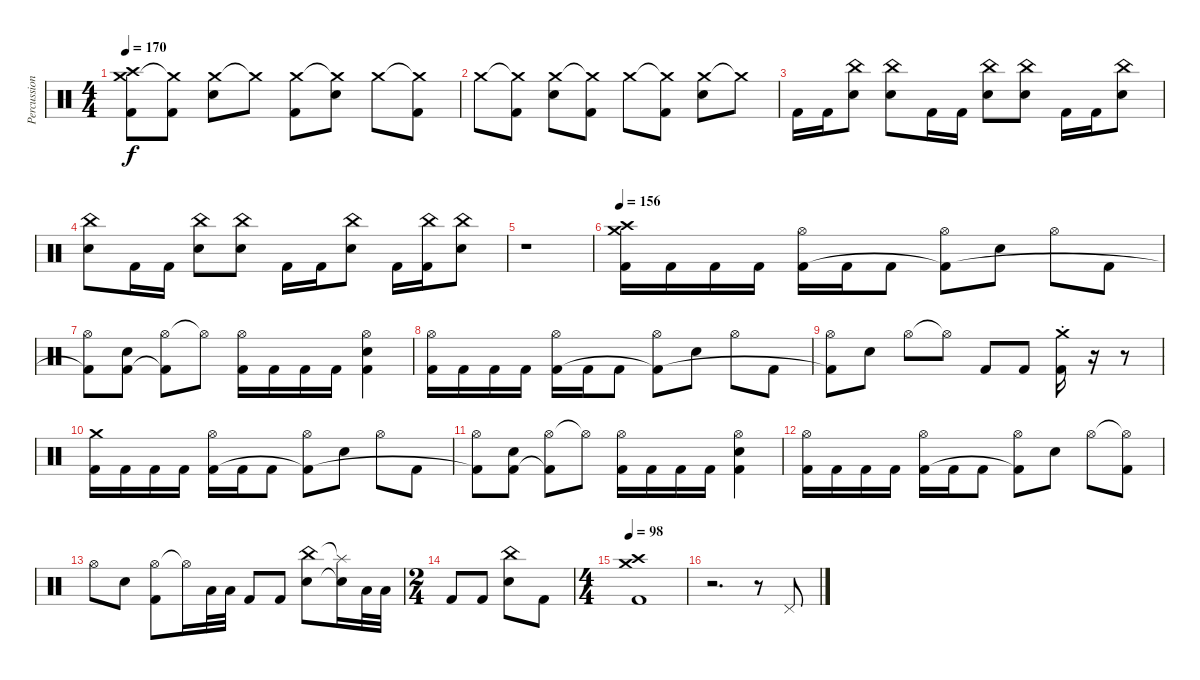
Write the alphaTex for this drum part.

\track ("Percussion" "Percussion") {instrument percussion}
\staff {score}
\articulation defaults
\ts (4 4)
\tempo 170
\clef neutral
\ks c
("Crash medium (hit)" "Crash high (hit)" "Kick (hit) 2").8{dy f} ("Crash medium (hit)"{t} "Kick (hit) 2").8 ("Crash medium (hit)" "Electric Snare (hit)").8 "Crash medium (hit)"{t}.8 ("Crash medium (hit)" "Kick (hit) 2").8 ("Crash medium (hit)"{t} "Electric Snare (hit)").8 "Crash medium (hit)".8 ("Crash medium (hit)"{t} "Kick (hit) 2").8 |
"Crash medium (hit)".8 ("Crash medium (hit)"{t} "Kick (hit) 2").8 ("Crash medium (hit)" "Electric Snare (hit)").8 ("Crash medium (hit)"{t} "Kick (hit) 2").8 "Crash medium (hit)".8 ("Crash medium (hit)"{t} "Kick (hit) 2").8 ("Crash medium (hit)" "Electric Snare (hit)").8 "Crash medium (hit)"{t}.8 |
"Kick (hit) 2".16 "Kick (hit) 2".16 ("China (hit)" "Electric Snare (hit)").8 ("China (hit)" "Electric Snare (hit)").8 "Kick (hit) 2".16 "Kick (hit) 2".16 ("China (hit)" "Electric Snare (hit)").8 ("China (hit)" "Electric Snare (hit)").8 "Kick (hit) 2".16 "Kick (hit) 2".16 ("China (hit)" "Electric Snare (hit)").8 |
("China (hit)" "Electric Snare (hit)").8 "Kick (hit) 2".16 "Kick (hit) 2".16 ("China (hit)" "Electric Snare (hit)").8 ("China (hit)" "Electric Snare (hit)").8 "Kick (hit) 2".16 "Kick (hit) 2".16 ("China (hit)" "Electric Snare (hit)").8 "Kick (hit) 2".16 ("China (hit)" "Kick (hit) 2").16 ("China (hit)" "Electric Snare (hit)").8 |
r.1 |
\tempo 156
("Crash medium (hit)" "Crash high (hit)" "Kick (hit) 2").16 "Kick (hit) 2".16 "Kick (hit) 2".16 "Kick (hit) 2".16 ("Hi-Hat (open)" "Kick (hit) 2").16 "Kick (hit) 2".16 "Kick (hit) 2".8 ("Hi-Hat (open)" "Kick (hit) 2"{t}).8 "Electric Snare (hit)".8 "Hi-Hat (open)".8 "Kick (hit) 2".8 |
("Hi-Hat (open)" "Kick (hit) 2"{t}).8 ("Electric Snare (hit)" "Kick (hit) 2").8 ("Hi-Hat (open)" "Kick (hit) 2"{t}).8 "Hi-Hat (open)"{t}.8 ("Hi-Hat (open)" "Kick (hit) 2").16 "Kick (hit) 2".16 "Kick (hit) 2".16 "Kick (hit) 2".16 ("Hi-Hat (open)" "Electric Snare (hit)" "Kick (hit) 2").4 |
("Hi-Hat (open)" "Kick (hit) 2").16 "Kick (hit) 2".16 "Kick (hit) 2".16 "Kick (hit) 2".16 ("Hi-Hat (open)" "Kick (hit) 2").16 "Kick (hit) 2".16 "Kick (hit) 2".8 ("Hi-Hat (open)" "Kick (hit) 2"{t}).8 "Electric Snare (hit)".8 "Hi-Hat (open)".8 "Kick (hit) 2".8 |
("Hi-Hat (open)" "Kick (hit) 2"{t}).8 "Electric Snare (hit)".8 "Hi-Hat (open)".8 "Hi-Hat (open)"{t}.8 "Kick (hit) 2".8 "Kick (hit) 2".8 ("Crash medium (hit)"{st} "Kick (hit) 2"{st}).16 r.16 r.8 |
("Crash medium (hit)" "Kick (hit) 2").16 "Kick (hit) 2".16 "Kick (hit) 2".16 "Kick (hit) 2".16 ("Hi-Hat (open)" "Kick (hit) 2").16 "Kick (hit) 2".16 "Kick (hit) 2".8 ("Hi-Hat (open)" "Kick (hit) 2"{t}).8 "Electric Snare (hit)".8 "Hi-Hat (open)".8 "Kick (hit) 2".8 |
("Hi-Hat (open)" "Kick (hit) 2"{t}).8 ("Electric Snare (hit)" "Kick (hit) 2").8 ("Hi-Hat (open)" "Kick (hit) 2"{t}).8 "Hi-Hat (open)"{t}.8 ("Hi-Hat (open)" "Kick (hit) 2").16 "Kick (hit) 2".16 "Kick (hit) 2".16 "Kick (hit) 2".16 ("Hi-Hat (open)" "Electric Snare (hit)" "Kick (hit) 2").4 |
("Hi-Hat (open)" "Kick (hit) 2").16 "Kick (hit) 2".16 "Kick (hit) 2".16 "Kick (hit) 2".16 ("Hi-Hat (open)" "Kick (hit) 2").16 "Kick (hit) 2".16 "Kick (hit) 2".8 ("Hi-Hat (open)" "Kick (hit) 2"{t}).8 "Electric Snare (hit)".8 "Hi-Hat (open)".8 ("Hi-Hat (open)"{t} "Kick (hit) 2").8 |
"Hi-Hat (open)".8 "Electric Snare (hit)".8 ("Hi-Hat (open)" "Kick (hit) 2").8 "Hi-Hat (open)"{t}.16 "Low Tom (hit)".32 "Low Tom (hit)".32 "Kick (hit) 2".8 "Kick (hit) 2".8 ("China (hit)" "Electric Snare (hit)").8 ("Splash (hit)"{t} "Electric Snare (hit)"{t}).16 "Low Tom (hit)".32 "Low Tom (hit)".32 |
\ts (2 4)
"Kick (hit) 2".8 "Kick (hit) 2".8 ("China (hit)" "Electric Snare (hit)").8 "Kick (hit) 2".8 |
\ts (4 4)
\tempo 98
("Crash medium (hit)" "Crash high (hit)" "Kick (hit) 2").1 |
r.2{d} r.8 "Pedal Hi-Hat (hit)".8
